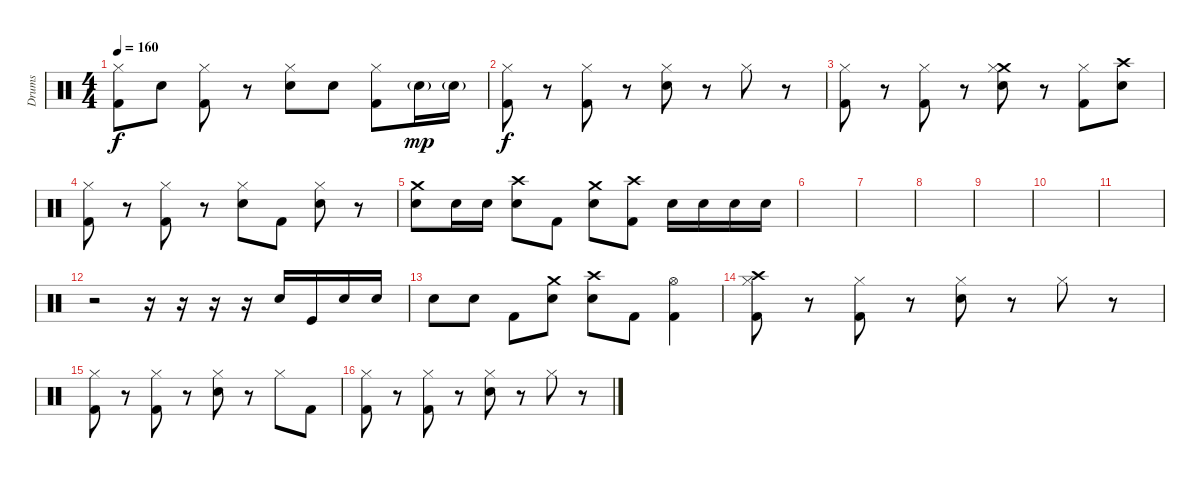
\track ("Drums" "Drums") {instrument percussion}
\staff {score}
\articulation defaults
\ts (4 4)
\tempo 160
\clef neutral
\ks c
("Hi-Hat (closed)" "Kick (hit) 2").8{dy f} "Electric Snare (hit)".8 ("Hi-Hat (closed)" "Kick (hit) 2").8 r.8 ("Hi-Hat (closed)" "Electric Snare (hit)").8 "Electric Snare (hit)".8 ("Hi-Hat (closed)" "Kick (hit) 2").8 "Electric Snare (hit)"{g}.16{dy mp} "Electric Snare (hit)"{g}.16 |
("Hi-Hat (closed)" "Kick (hit) 2").8{dy f} r.8 ("Hi-Hat (closed)" "Kick (hit) 2").8 r.8 ("Hi-Hat (closed)" "Electric Snare (hit)").8 r.8 "Hi-Hat (closed)".8 r.8 |
("Hi-Hat (closed)" "Kick (hit) 2").8 r.8 ("Hi-Hat (closed)" "Kick (hit) 2").8 r.8 ("Crash medium (hit)" "Hi-Hat (closed)" "Electric Snare (hit)").8 r.8 ("Hi-Hat (closed)" "Kick (hit) 2").8 ("Crash high (hit)" "Electric Snare (hit)").8 |
("Hi-Hat (closed)" "Kick (hit) 2").8 r.8 ("Hi-Hat (closed)" "Kick (hit) 2").8 r.8 ("Hi-Hat (closed)" "Electric Snare (hit)").8 "Kick (hit) 2".8 ("Hi-Hat (closed)" "Electric Snare (hit)").8 r.8 |
("Crash medium (hit)" "Electric Snare (hit)").8 "Electric Snare (hit)".16 "Electric Snare (hit)".16 ("Crash high (hit)" "Electric Snare (hit)").8 "Kick (hit) 2".8 ("Crash medium (hit)" "Electric Snare (hit)").8 ("Crash high (hit)" "Kick (hit) 2").8 "Electric Snare (hit)".16 "Electric Snare (hit)".16 "Electric Snare (hit)".16 "Electric Snare (hit)".16 |
|
|
|
|
|
|
r.2 r.16 r.16 r.16 r.16 "Electric Snare (hit)".16 "Kick (hit)".16 "Electric Snare (hit)".16 "Electric Snare (hit)".16 |
"Electric Snare (hit)".8 "Electric Snare (hit)".8 "Kick (hit) 2".8 ("Crash medium (hit)" "Electric Snare (hit)").8 ("Crash high (hit)" "Electric Snare (hit)").8 "Kick (hit) 2".8 ("Hi-Hat (open)" "Kick (hit) 2").4 |
("Crash high (hit)" "Hi-Hat (closed)" "Kick (hit) 2").8 r.8 ("Hi-Hat (closed)" "Kick (hit) 2").8 r.8 ("Hi-Hat (closed)" "Electric Snare (hit)").8 r.8 "Hi-Hat (closed)".8 r.8 |
("Hi-Hat (closed)" "Kick (hit) 2").8 r.8 ("Hi-Hat (closed)" "Kick (hit) 2").8 r.8 ("Hi-Hat (closed)" "Electric Snare (hit)").8 r.8 "Hi-Hat (closed)".8 "Kick (hit) 2".8 |
("Hi-Hat (closed)" "Kick (hit) 2").8 r.8 ("Hi-Hat (closed)" "Kick (hit) 2").8 r.8 ("Hi-Hat (closed)" "Electric Snare (hit)").8 r.8 "Hi-Hat (closed)".8 r.8
